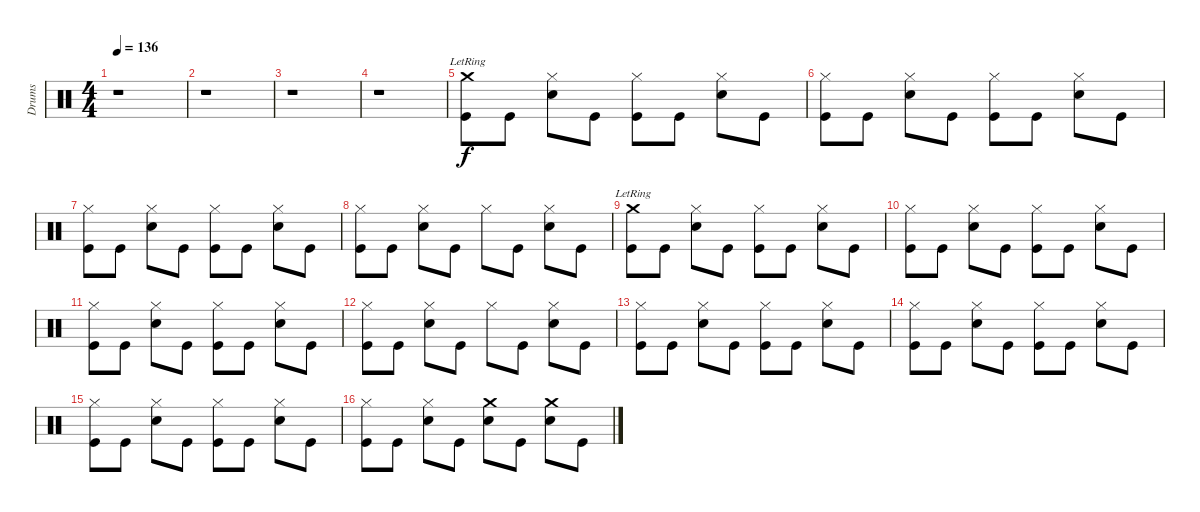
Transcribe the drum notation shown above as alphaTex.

\track ("Drums" "Drums") {instrument percussion}
\staff {score}
\articulation defaults
\ts (4 4)
\tempo 136
\clef neutral
\ks c
r.1{dy f} |
r.1 |
r.1 |
r.1 |
("Crash medium (hit)"{lr} "Kick (hit)").8 "Kick (hit)".8 ("Hi-Hat (closed)" "Snare (hit) 2").8 "Kick (hit)".8 ("Hi-Hat (closed)" "Kick (hit)").8 "Kick (hit)".8 ("Hi-Hat (closed)" "Snare (hit) 2").8 "Kick (hit)".8 |
("Hi-Hat (closed)" "Kick (hit)").8 "Kick (hit)".8 ("Hi-Hat (closed)" "Snare (hit) 2").8 "Kick (hit)".8 ("Hi-Hat (closed)" "Kick (hit)").8 "Kick (hit)".8 ("Hi-Hat (closed)" "Snare (hit) 2").8 "Kick (hit)".8 |
("Hi-Hat (closed)" "Kick (hit)").8 "Kick (hit)".8 ("Hi-Hat (closed)" "Snare (hit) 2").8 "Kick (hit)".8 ("Hi-Hat (closed)" "Kick (hit)").8 "Kick (hit)".8 ("Hi-Hat (closed)" "Snare (hit) 2").8 "Kick (hit)".8 |
("Hi-Hat (closed)" "Kick (hit)").8 "Kick (hit)".8 ("Hi-Hat (closed)" "Snare (hit) 2").8 "Kick (hit)".8 "Hi-Hat (closed)".8 "Kick (hit)".8 ("Hi-Hat (closed)" "Snare (hit) 2").8 "Kick (hit)".8 |
("Crash medium (hit)"{lr} "Kick (hit)").8 "Kick (hit)".8 ("Hi-Hat (closed)" "Snare (hit) 2").8 "Kick (hit)".8 ("Hi-Hat (closed)" "Kick (hit)").8 "Kick (hit)".8 ("Hi-Hat (closed)" "Snare (hit) 2").8 "Kick (hit)".8 |
("Hi-Hat (closed)" "Kick (hit)").8 "Kick (hit)".8 ("Hi-Hat (closed)" "Snare (hit) 2").8 "Kick (hit)".8 ("Hi-Hat (closed)" "Kick (hit)").8 "Kick (hit)".8 ("Hi-Hat (closed)" "Snare (hit) 2").8 "Kick (hit)".8 |
("Hi-Hat (closed)" "Kick (hit)").8 "Kick (hit)".8 ("Hi-Hat (closed)" "Snare (hit) 2").8 "Kick (hit)".8 ("Hi-Hat (closed)" "Kick (hit)").8 "Kick (hit)".8 ("Hi-Hat (closed)" "Snare (hit) 2").8 "Kick (hit)".8 |
("Hi-Hat (closed)" "Kick (hit)").8 "Kick (hit)".8 ("Hi-Hat (closed)" "Snare (hit) 2").8 "Kick (hit)".8 "Hi-Hat (closed)".8 "Kick (hit)".8 ("Hi-Hat (closed)" "Snare (hit) 2").8 "Kick (hit)".8 |
("Hi-Hat (closed)" "Kick (hit)").8 "Kick (hit)".8 ("Hi-Hat (closed)" "Snare (hit) 2").8 "Kick (hit)".8 ("Hi-Hat (closed)" "Kick (hit)").8 "Kick (hit)".8 ("Hi-Hat (closed)" "Snare (hit) 2").8 "Kick (hit)".8 |
("Hi-Hat (closed)" "Kick (hit)").8 "Kick (hit)".8 ("Hi-Hat (closed)" "Snare (hit) 2").8 "Kick (hit)".8 ("Hi-Hat (closed)" "Kick (hit)").8 "Kick (hit)".8 ("Hi-Hat (closed)" "Snare (hit) 2").8 "Kick (hit)".8 |
("Hi-Hat (closed)" "Kick (hit)").8 "Kick (hit)".8 ("Hi-Hat (closed)" "Snare (hit) 2").8 "Kick (hit)".8 ("Hi-Hat (closed)" "Kick (hit)").8 "Kick (hit)".8 ("Hi-Hat (closed)" "Snare (hit) 2").8 "Kick (hit)".8 |
("Hi-Hat (closed)" "Kick (hit)").8 "Kick (hit)".8 ("Hi-Hat (closed)" "Snare (hit) 2").8 "Kick (hit)".8 ("Crash medium (hit)" "Snare (hit) 2").8 "Kick (hit)".8 ("Crash medium (hit)" "Snare (hit) 2").8 "Kick (hit)".8
